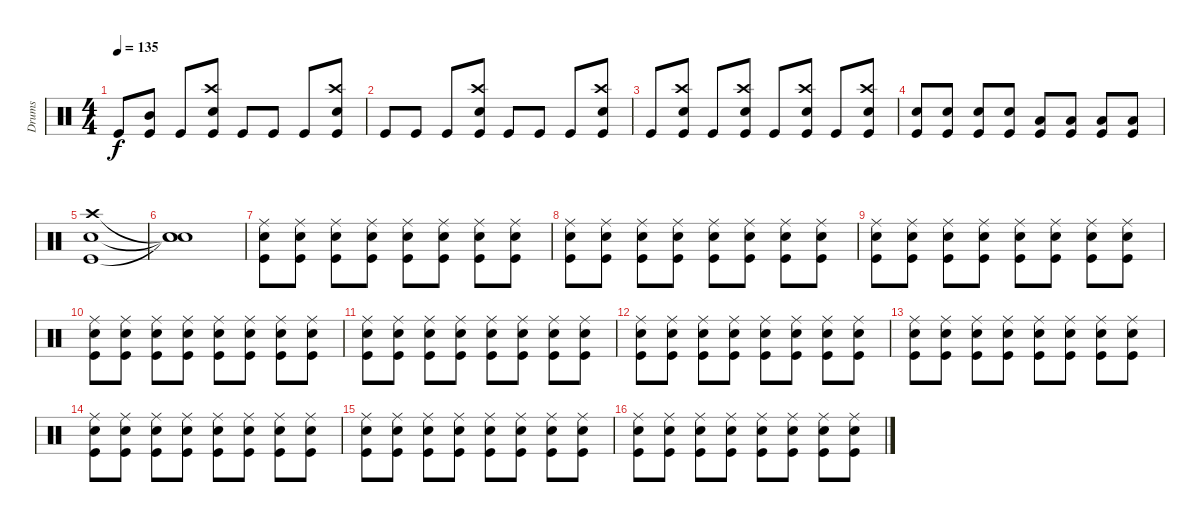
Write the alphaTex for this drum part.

\track ("Drums" "Drums") {instrument percussion}
\staff {score}
\articulation defaults
\ts (4 4)
\tempo 135
\clef neutral
\ks c "Kick (hit)".8{dy f}
("Mid Tom (hit)" "Kick (hit)").8 "Kick (hit)".8 ("Crash high (hit)" "Electric Snare (hit)" "Kick (hit)").8 "Kick (hit)".8 "Kick (hit)".8 "Kick (hit)".8 ("Crash high (hit)" "Electric Snare (hit)" "Kick (hit)").8 |
"Kick (hit)".8 "Kick (hit)".8 "Kick (hit)".8 ("Crash high (hit)" "Electric Snare (hit)" "Kick (hit)").8 "Kick (hit)".8 "Kick (hit)".8 "Kick (hit)".8 ("Crash high (hit)" "Electric Snare (hit)" "Kick (hit)").8 |
"Kick (hit)".8 ("Crash high (hit)" "Electric Snare (hit)" "Kick (hit)").8 "Kick (hit)".8 ("Crash high (hit)" "Electric Snare (hit)" "Kick (hit)").8 "Kick (hit)".8 ("Crash high (hit)" "Electric Snare (hit)" "Kick (hit)").8 "Kick (hit)".8 ("Crash high (hit)" "Electric Snare (hit)" "Kick (hit)").8 |
("Electric Snare (hit)" "Kick (hit)").8 ("Electric Snare (hit)" "Kick (hit)").8 ("Electric Snare (hit)" "Kick (hit)").8 ("Electric Snare (hit)" "Kick (hit)").8 ("Low Tom (hit)" "Kick (hit)").8 ("Low Tom (hit)" "Kick (hit)").8 ("Low Tom (hit)" "Kick (hit)").8 ("Low Tom (hit)" "Kick (hit)").8 |
("Crash high (hit)" "Electric Snare (hit)" "Kick (hit)").1 |
("Snare (hit)"{t} "Snare (hit)"{t} "Snare (hit)"{t}).1 |
("Ride (middle)" "Electric Snare (hit)" "Kick (hit)").8 ("Ride (middle)" "Electric Snare (hit)" "Kick (hit)").8 ("Ride (middle)" "Electric Snare (hit)" "Kick (hit)").8 ("Ride (middle)" "Electric Snare (hit)" "Kick (hit)").8 ("Ride (middle)" "Electric Snare (hit)" "Kick (hit)").8 ("Ride (middle)" "Electric Snare (hit)" "Kick (hit)").8 ("Ride (middle)" "Electric Snare (hit)" "Kick (hit)").8 ("Ride (middle)" "Electric Snare (hit)" "Kick (hit)").8 |
("Ride (middle)" "Electric Snare (hit)" "Kick (hit)").8 ("Ride (middle)" "Electric Snare (hit)" "Kick (hit)").8 ("Ride (middle)" "Electric Snare (hit)" "Kick (hit)").8 ("Ride (middle)" "Electric Snare (hit)" "Kick (hit)").8 ("Ride (middle)" "Electric Snare (hit)" "Kick (hit)").8 ("Ride (middle)" "Electric Snare (hit)" "Kick (hit)").8 ("Ride (middle)" "Electric Snare (hit)" "Kick (hit)").8 ("Ride (middle)" "Electric Snare (hit)" "Kick (hit)").8 |
("Ride (middle)" "Electric Snare (hit)" "Kick (hit)").8 ("Ride (middle)" "Electric Snare (hit)" "Kick (hit)").8 ("Ride (middle)" "Electric Snare (hit)" "Kick (hit)").8 ("Ride (middle)" "Electric Snare (hit)" "Kick (hit)").8 ("Ride (middle)" "Electric Snare (hit)" "Kick (hit)").8 ("Ride (middle)" "Electric Snare (hit)" "Kick (hit)").8 ("Ride (middle)" "Electric Snare (hit)" "Kick (hit)").8 ("Ride (middle)" "Electric Snare (hit)" "Kick (hit)").8 |
("Ride (middle)" "Electric Snare (hit)" "Kick (hit)").8 ("Ride (middle)" "Electric Snare (hit)" "Kick (hit)").8 ("Ride (middle)" "Electric Snare (hit)" "Kick (hit)").8 ("Ride (middle)" "Electric Snare (hit)" "Kick (hit)").8 ("Ride (middle)" "Electric Snare (hit)" "Kick (hit)").8 ("Ride (middle)" "Electric Snare (hit)" "Kick (hit)").8 ("Ride (middle)" "Electric Snare (hit)" "Kick (hit)").8 ("Ride (middle)" "Electric Snare (hit)" "Kick (hit)").8 |
("Ride (middle)" "Electric Snare (hit)" "Kick (hit)").8 ("Ride (middle)" "Electric Snare (hit)" "Kick (hit)").8 ("Ride (middle)" "Electric Snare (hit)" "Kick (hit)").8 ("Ride (middle)" "Electric Snare (hit)" "Kick (hit)").8 ("Ride (middle)" "Electric Snare (hit)" "Kick (hit)").8 ("Ride (middle)" "Electric Snare (hit)" "Kick (hit)").8 ("Ride (middle)" "Electric Snare (hit)" "Kick (hit)").8 ("Ride (middle)" "Electric Snare (hit)" "Kick (hit)").8 |
("Ride (middle)" "Electric Snare (hit)" "Kick (hit)").8 ("Ride (middle)" "Electric Snare (hit)" "Kick (hit)").8 ("Ride (middle)" "Electric Snare (hit)" "Kick (hit)").8 ("Ride (middle)" "Electric Snare (hit)" "Kick (hit)").8 ("Ride (middle)" "Electric Snare (hit)" "Kick (hit)").8 ("Ride (middle)" "Electric Snare (hit)" "Kick (hit)").8 ("Ride (middle)" "Electric Snare (hit)" "Kick (hit)").8 ("Ride (middle)" "Electric Snare (hit)" "Kick (hit)").8 |
("Ride (middle)" "Electric Snare (hit)" "Kick (hit)").8 ("Ride (middle)" "Electric Snare (hit)" "Kick (hit)").8 ("Ride (middle)" "Electric Snare (hit)" "Kick (hit)").8 ("Ride (middle)" "Electric Snare (hit)" "Kick (hit)").8 ("Ride (middle)" "Electric Snare (hit)" "Kick (hit)").8 ("Ride (middle)" "Electric Snare (hit)" "Kick (hit)").8 ("Ride (middle)" "Electric Snare (hit)" "Kick (hit)").8 ("Ride (middle)" "Electric Snare (hit)" "Kick (hit)").8 |
("Ride (middle)" "Electric Snare (hit)" "Kick (hit)").8 ("Ride (middle)" "Electric Snare (hit)" "Kick (hit)").8 ("Ride (middle)" "Electric Snare (hit)" "Kick (hit)").8 ("Ride (middle)" "Electric Snare (hit)" "Kick (hit)").8 ("Ride (middle)" "Electric Snare (hit)" "Kick (hit)").8 ("Ride (middle)" "Electric Snare (hit)" "Kick (hit)").8 ("Ride (middle)" "Electric Snare (hit)" "Kick (hit)").8 ("Ride (middle)" "Electric Snare (hit)" "Kick (hit)").8 |
("Ride (middle)" "Electric Snare (hit)" "Kick (hit)").8 ("Ride (middle)" "Electric Snare (hit)" "Kick (hit)").8 ("Ride (middle)" "Electric Snare (hit)" "Kick (hit)").8 ("Ride (middle)" "Electric Snare (hit)" "Kick (hit)").8 ("Ride (middle)" "Electric Snare (hit)" "Kick (hit)").8 ("Ride (middle)" "Electric Snare (hit)" "Kick (hit)").8 ("Ride (middle)" "Electric Snare (hit)" "Kick (hit)").8 ("Ride (middle)" "Electric Snare (hit)" "Kick (hit)").8 |
("Ride (middle)" "Electric Snare (hit)" "Kick (hit)").8 ("Ride (middle)" "Electric Snare (hit)" "Kick (hit)").8 ("Ride (middle)" "Electric Snare (hit)" "Kick (hit)").8 ("Ride (middle)" "Electric Snare (hit)" "Kick (hit)").8 ("Ride (middle)" "Electric Snare (hit)" "Kick (hit)").8 ("Ride (middle)" "Electric Snare (hit)" "Kick (hit)").8 ("Ride (middle)" "Electric Snare (hit)" "Kick (hit)").8 ("Ride (middle)" "Electric Snare (hit)" "Kick (hit)").8
